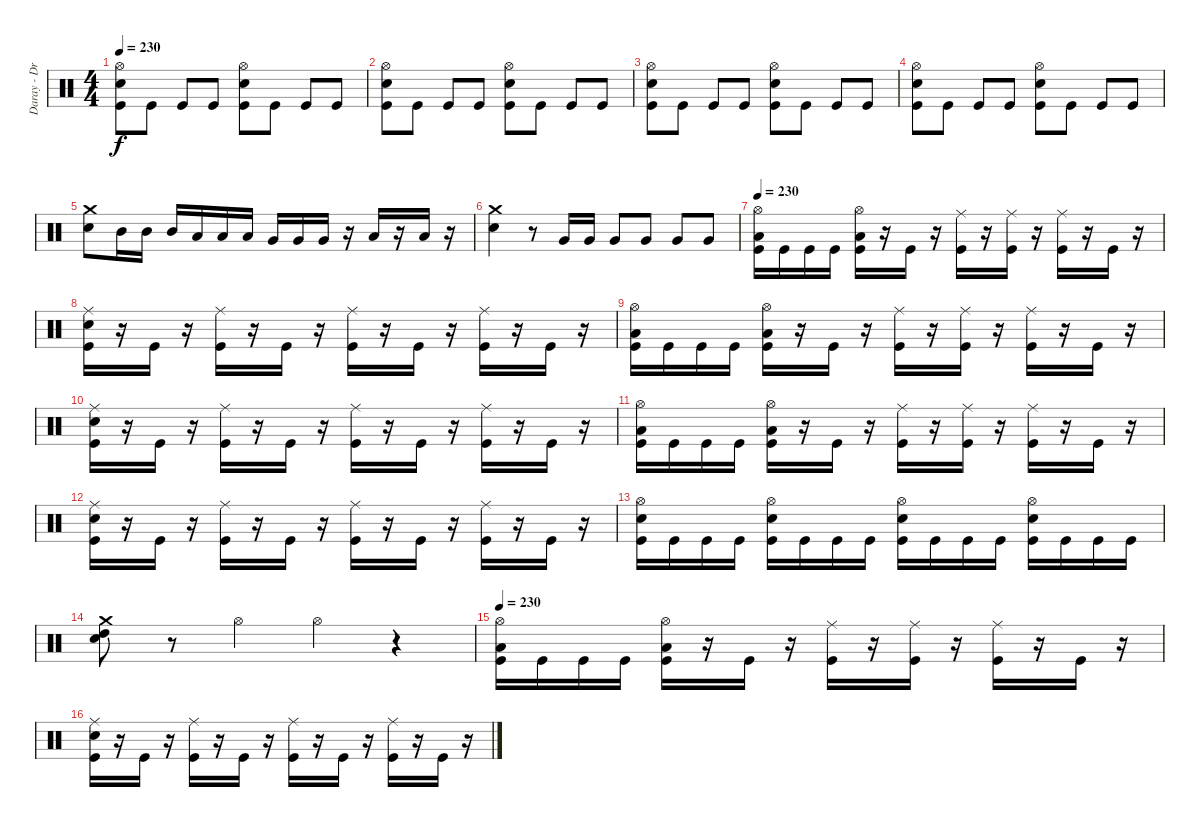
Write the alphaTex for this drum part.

\track ("Daray - Drums" "Daray - Dr") {instrument percussion}
\staff {score}
\articulation defaults
\ts (4 4)
\tempo 230
\clef neutral
\ks c
("Hi-Hat (open)" "Electric Snare (hit)" "Kick (hit)").8{dy f} "Kick (hit)".8 "Kick (hit)".8 "Kick (hit)".8 ("Hi-Hat (open)" "Electric Snare (hit)" "Kick (hit)").8 "Kick (hit)".8 "Kick (hit)".8 "Kick (hit)".8 |
("Hi-Hat (open)" "Electric Snare (hit)" "Kick (hit)").8 "Kick (hit)".8 "Kick (hit)".8 "Kick (hit)".8 ("Hi-Hat (open)" "Electric Snare (hit)" "Kick (hit)").8 "Kick (hit)".8 "Kick (hit)".8 "Kick (hit)".8 |
("Hi-Hat (open)" "Electric Snare (hit)" "Kick (hit)").8 "Kick (hit)".8 "Kick (hit)".8 "Kick (hit)".8 ("Hi-Hat (open)" "Electric Snare (hit)" "Kick (hit)").8 "Kick (hit)".8 "Kick (hit)".8 "Kick (hit)".8 |
("Hi-Hat (open)" "Electric Snare (hit)" "Kick (hit)").8 "Kick (hit)".8 "Kick (hit)".8 "Kick (hit)".8 ("Hi-Hat (open)" "Electric Snare (hit)" "Kick (hit)").8 "Kick (hit)".8 "Kick (hit)".8 "Kick (hit)".8 |
("Crash medium (hit)" "Electric Snare (hit)").8 "Mid Tom (hit)".16 "Mid Tom (hit)".16 "Mid Tom (hit)".16 "Low Tom (hit)".16 "Low Tom (hit)".16 "Low Tom (hit)".16 "Very Low Tom (hit)".16 "Very Low Tom (hit)".16 "Very Low Tom (hit)".16 r.16 "Low Floor Tom (hit)".16 r.16 "Low Floor Tom (hit)".16 r.16 |
("Crash medium (hit)" "Electric Snare (hit)").4 r.8 "Very Low Tom (hit)".16 "Very Low Tom (hit)".16 "Very Low Tom (hit)".8 "Very Low Tom (hit)".8 "Very Low Tom (hit)".8 "Very Low Tom (hit)".8 |
\tempo 230
("Hi-Hat (open)" "Low Floor Tom (hit)" "Kick (hit)").16 "Kick (hit)".16 "Kick (hit)".16 "Kick (hit)".16 ("Hi-Hat (open)" "Low Floor Tom (hit)" "Kick (hit)").16 r.16 "Kick (hit)".16 r.16 ("Ride (middle)" "Kick (hit)").16 r.16 ("Ride (middle)" "Kick (hit)").16 r.16 ("Ride (middle)" "Kick (hit)").16 r.16 "Kick (hit)".16 r.16 |
("Ride (middle)" "Electric Snare (hit)" "Kick (hit)").16 r.16 "Kick (hit)".16 r.16 ("Ride (middle)" "Kick (hit)").16 r.16 "Kick (hit)".16 r.16 ("Ride (middle)" "Kick (hit)").16 r.16 "Kick (hit)".16 r.16 ("Ride (middle)" "Kick (hit)").16 r.16 "Kick (hit)".16 r.16 |
("Hi-Hat (open)" "Low Floor Tom (hit)" "Kick (hit)").16 "Kick (hit)".16 "Kick (hit)".16 "Kick (hit)".16 ("Hi-Hat (open)" "Low Floor Tom (hit)" "Kick (hit)").16 r.16 "Kick (hit)".16 r.16 ("Ride (middle)" "Kick (hit)").16 r.16 ("Ride (middle)" "Kick (hit)").16 r.16 ("Ride (middle)" "Kick (hit)").16 r.16 "Kick (hit)".16 r.16 |
("Ride (middle)" "Electric Snare (hit)" "Kick (hit)").16 r.16 "Kick (hit)".16 r.16 ("Ride (middle)" "Kick (hit)").16 r.16 "Kick (hit)".16 r.16 ("Ride (middle)" "Kick (hit)").16 r.16 "Kick (hit)".16 r.16 ("Ride (middle)" "Kick (hit)").16 r.16 "Kick (hit)".16 r.16 |
("Hi-Hat (open)" "Low Floor Tom (hit)" "Kick (hit)").16 "Kick (hit)".16 "Kick (hit)".16 "Kick (hit)".16 ("Hi-Hat (open)" "Low Floor Tom (hit)" "Kick (hit)").16 r.16 "Kick (hit)".16 r.16 ("Ride (middle)" "Kick (hit)").16 r.16 ("Ride (middle)" "Kick (hit)").16 r.16 ("Ride (middle)" "Kick (hit)").16 r.16 "Kick (hit)".16 r.16 |
("Ride (middle)" "Electric Snare (hit)" "Kick (hit)").16 r.16 "Kick (hit)".16 r.16 ("Ride (middle)" "Kick (hit)").16 r.16 "Kick (hit)".16 r.16 ("Ride (middle)" "Kick (hit)").16 r.16 "Kick (hit)".16 r.16 ("Ride (middle)" "Kick (hit)").16 r.16 "Kick (hit)".16 r.16 |
("Hi-Hat (open)" "Electric Snare (hit)" "Kick (hit)").16 "Kick (hit)".16 "Kick (hit)".16 "Kick (hit)".16 ("Hi-Hat (open)" "Electric Snare (hit)" "Kick (hit)").16 "Kick (hit)".16 "Kick (hit)".16 "Kick (hit)".16 ("Hi-Hat (open)" "Electric Snare (hit)" "Kick (hit)").16 "Kick (hit)".16 "Kick (hit)".16 "Kick (hit)".16 ("Hi-Hat (open)" "Electric Snare (hit)" "Kick (hit)").16 "Kick (hit)".16 "Kick (hit)".16 "Kick (hit)".16 |
("Crash medium (hit)" "Electric Snare (hit)" "High Tom (hit)").8 r.8 "Hi-Hat (open)".4 "Hi-Hat (open)".4 r.4 |
\tempo 230
("Hi-Hat (open)" "Low Floor Tom (hit)" "Kick (hit)").16 "Kick (hit)".16 "Kick (hit)".16 "Kick (hit)".16 ("Hi-Hat (open)" "Low Floor Tom (hit)" "Kick (hit)").16 r.16 "Kick (hit)".16 r.16 ("Ride (middle)" "Kick (hit)").16 r.16 ("Ride (middle)" "Kick (hit)").16 r.16 ("Ride (middle)" "Kick (hit)").16 r.16 "Kick (hit)".16 r.16 |
("Ride (middle)" "Electric Snare (hit)" "Kick (hit)").16 r.16 "Kick (hit)".16 r.16 ("Ride (middle)" "Kick (hit)").16 r.16 "Kick (hit)".16 r.16 ("Ride (middle)" "Kick (hit)").16 r.16 "Kick (hit)".16 r.16 ("Ride (middle)" "Kick (hit)").16 r.16 "Kick (hit)".16 r.16
